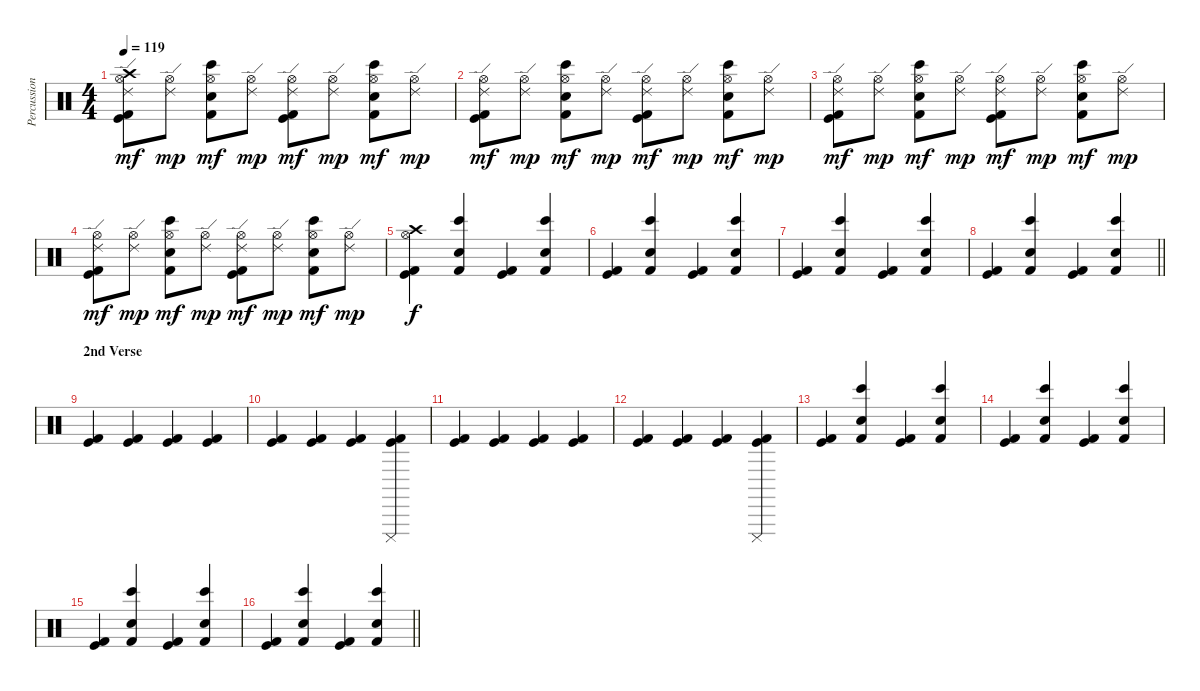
\track ("Percussion" "Percussion") {instrument percussion}
\staff {score}
\articulation defaults
\ts (4 4)
\tempo 119
\clef neutral
\ks c
("Crash high (hit)" "Ride (edge) 2" "Hi-Hat (open)" "Kick (hit)" "Kick (hit) 2").8{dy mf} ("Ride (edge) 2" "Hi-Hat (open)").8{dy mp} ("Bongo High (hit)" "Hi-Hat (open)" "Hand Clap (hit)" "Kick (hit) 2").8{dy mf} ("Ride (edge) 2" "Hi-Hat (open)").8{dy mp} ("Ride (edge) 2" "Hi-Hat (open)" "Kick (hit)" "Kick (hit) 2").8{dy mf} ("Ride (edge) 2" "Hi-Hat (open)").8{dy mp} ("Bongo High (hit)" "Hi-Hat (open)" "Hand Clap (hit)" "Kick (hit) 2").8{dy mf} ("Ride (edge) 2" "Hi-Hat (open)").8{dy mp} |
("Ride (edge) 2" "Hi-Hat (open)" "Kick (hit)" "Kick (hit) 2").8{dy mf} ("Ride (edge) 2" "Hi-Hat (open)").8{dy mp} ("Bongo High (hit)" "Hi-Hat (open)" "Hand Clap (hit)" "Kick (hit) 2").8{dy mf} ("Ride (edge) 2" "Hi-Hat (open)").8{dy mp} ("Ride (edge) 2" "Hi-Hat (open)" "Kick (hit)" "Kick (hit) 2").8{dy mf} ("Ride (edge) 2" "Hi-Hat (open)").8{dy mp} ("Bongo High (hit)" "Hi-Hat (open)" "Hand Clap (hit)" "Kick (hit) 2").8{dy mf} ("Ride (edge) 2" "Hi-Hat (open)").8{dy mp} |
("Ride (edge) 2" "Hi-Hat (open)" "Kick (hit)" "Kick (hit) 2").8{dy mf} ("Ride (edge) 2" "Hi-Hat (open)").8{dy mp} ("Bongo High (hit)" "Hi-Hat (open)" "Hand Clap (hit)" "Kick (hit) 2").8{dy mf} ("Ride (edge) 2" "Hi-Hat (open)").8{dy mp} ("Ride (edge) 2" "Hi-Hat (open)" "Kick (hit)" "Kick (hit) 2").8{dy mf} ("Ride (edge) 2" "Hi-Hat (open)").8{dy mp} ("Bongo High (hit)" "Hi-Hat (open)" "Hand Clap (hit)" "Kick (hit) 2").8{dy mf} ("Ride (edge) 2" "Hi-Hat (open)").8{dy mp} |
("Ride (edge) 2" "Hi-Hat (open)" "Kick (hit)" "Kick (hit) 2").8{dy mf} ("Ride (edge) 2" "Hi-Hat (open)").8{dy mp} ("Bongo High (hit)" "Hi-Hat (open)" "Hand Clap (hit)" "Kick (hit) 2").8{dy mf} ("Ride (edge) 2" "Hi-Hat (open)").8{dy mp} ("Ride (edge) 2" "Hi-Hat (open)" "Kick (hit)" "Kick (hit) 2").8{dy mf} ("Ride (edge) 2" "Hi-Hat (open)").8{dy mp} ("Bongo High (hit)" "Hi-Hat (open)" "Hand Clap (hit)" "Kick (hit) 2").8{dy mf} ("Ride (edge) 2" "Hi-Hat (open)").8{dy mp} |
("Crash high (hit)" "Hi-Hat (open)" "Kick (hit)" "Kick (hit) 2").4{dy f} ("Bongo High (hit)" "Hand Clap (hit)" "Kick (hit) 2").4 ("Kick (hit)" "Kick (hit) 2").4 ("Bongo High (hit)" "Hand Clap (hit)" "Kick (hit) 2").4 |
("Kick (hit)" "Kick (hit) 2").4 ("Bongo High (hit)" "Hand Clap (hit)" "Kick (hit) 2").4 ("Kick (hit)" "Kick (hit) 2").4 ("Bongo High (hit)" "Hand Clap (hit)" "Kick (hit) 2").4 |
("Kick (hit)" "Kick (hit) 2").4 ("Bongo High (hit)" "Hand Clap (hit)" "Kick (hit) 2").4 ("Kick (hit)" "Kick (hit) 2").4 ("Bongo High (hit)" "Hand Clap (hit)" "Kick (hit) 2").4 |
\barLineRight lightlight
("Kick (hit)" "Kick (hit) 2").4 ("Bongo High (hit)" "Hand Clap (hit)" "Kick (hit) 2").4 ("Kick (hit)" "Kick (hit) 2").4 ("Bongo High (hit)" "Hand Clap (hit)" "Kick (hit) 2").4 |
\section ("" "2nd Verse")
("Kick (hit)" "Kick (hit) 2").4 ("Kick (hit)" "Kick (hit) 2").4 ("Kick (hit)" "Kick (hit) 2").4 ("Kick (hit)" "Kick (hit) 2").4 |
("Kick (hit)" "Kick (hit) 2").4 ("Kick (hit)" "Kick (hit) 2").4 ("Kick (hit)" "Kick (hit) 2").4 ("Cuica (mute)" "Kick (hit)" "Kick (hit) 2").4 |
("Kick (hit)" "Kick (hit) 2").4 ("Kick (hit)" "Kick (hit) 2").4 ("Kick (hit)" "Kick (hit) 2").4 ("Kick (hit)" "Kick (hit) 2").4 |
("Kick (hit)" "Kick (hit) 2").4 ("Kick (hit)" "Kick (hit) 2").4 ("Kick (hit)" "Kick (hit) 2").4 ("Cuica (mute)" "Kick (hit)" "Kick (hit) 2").4 |
("Kick (hit)" "Kick (hit) 2").4 ("Bongo High (hit)" "Hand Clap (hit)" "Kick (hit) 2").4 ("Kick (hit)" "Kick (hit) 2").4 ("Bongo High (hit)" "Hand Clap (hit)" "Kick (hit) 2").4 |
("Kick (hit)" "Kick (hit) 2").4 ("Bongo High (hit)" "Hand Clap (hit)" "Kick (hit) 2").4 ("Kick (hit)" "Kick (hit) 2").4 ("Bongo High (hit)" "Hand Clap (hit)" "Kick (hit) 2").4 |
("Kick (hit)" "Kick (hit) 2").4 ("Bongo High (hit)" "Hand Clap (hit)" "Kick (hit) 2").4 ("Kick (hit)" "Kick (hit) 2").4 ("Bongo High (hit)" "Hand Clap (hit)" "Kick (hit) 2").4 |
\barLineRight lightlight
("Kick (hit)" "Kick (hit) 2").4 ("Bongo High (hit)" "Hand Clap (hit)" "Kick (hit) 2").4 ("Kick (hit)" "Kick (hit) 2").4 ("Bongo High (hit)" "Hand Clap (hit)" "Kick (hit) 2").4
